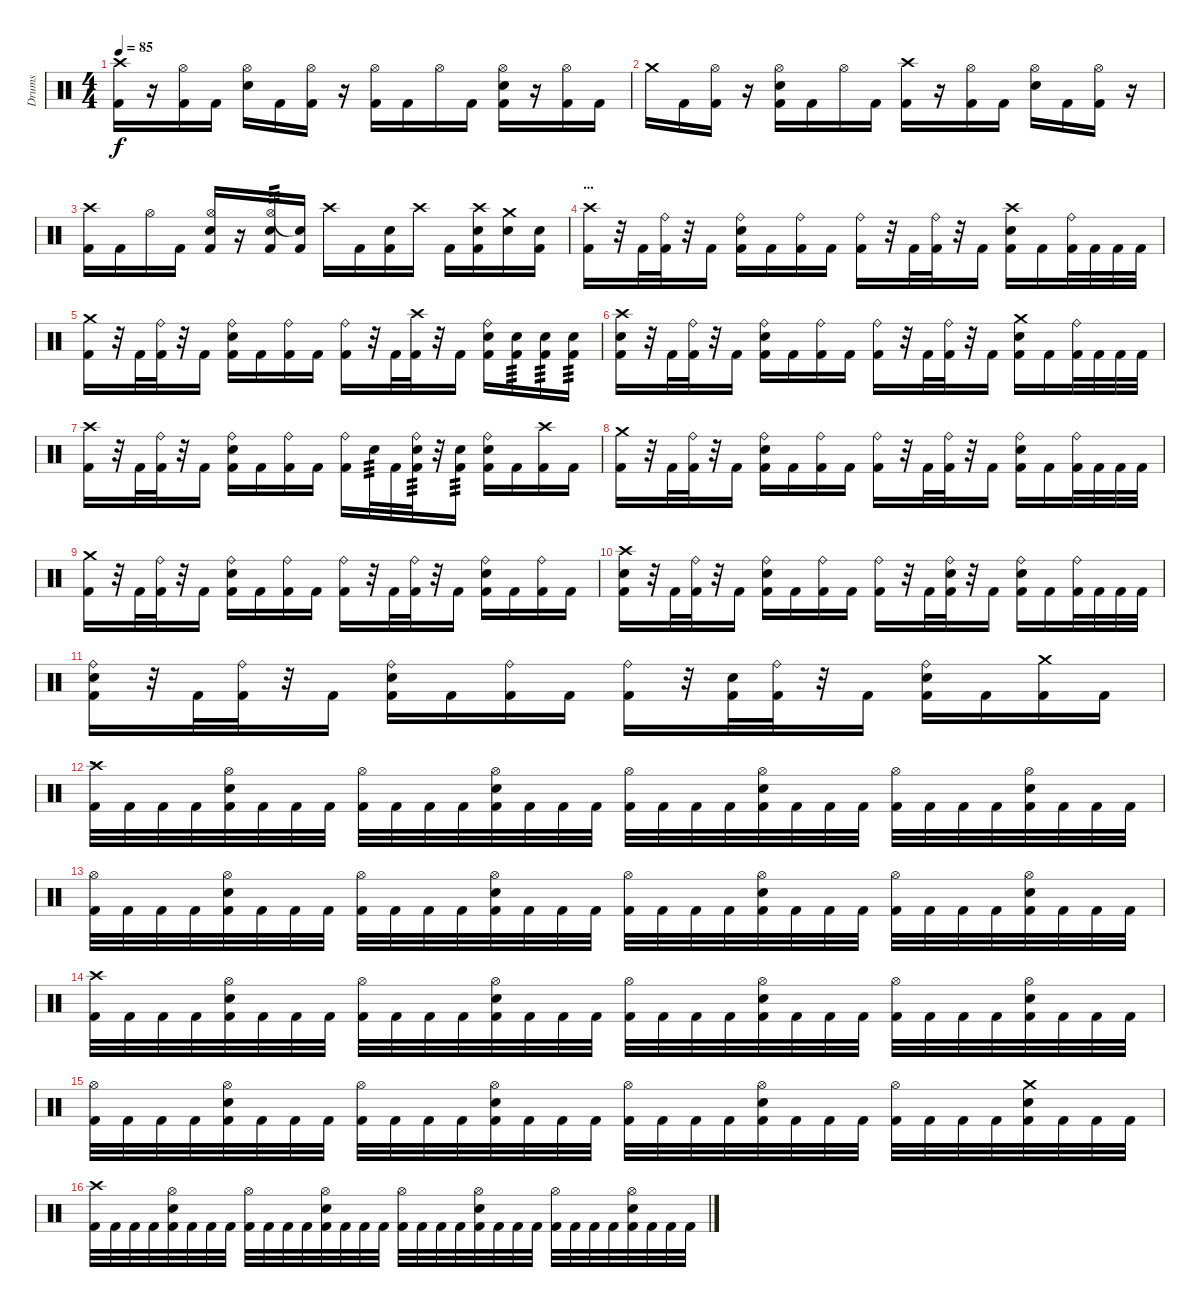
\track ("Drums" "Drums") {instrument percussion}
\staff {score}
\articulation defaults
\ts (4 4)
\tempo 85
\clef neutral
\ks c
("Crash high (hit)" "Kick (hit) 2").16{dy f} r.16 ("Hi-Hat (open)" "Kick (hit) 2").16 "Kick (hit) 2".16 ("Hi-Hat (open)" "Snare (hit) 2").16 "Kick (hit) 2".16 ("Hi-Hat (open)" "Kick (hit) 2").16 r.16 ("Hi-Hat (open)" "Kick (hit) 2").16 "Kick (hit) 2".16 "Hi-Hat (open)".16 "Kick (hit) 2".16 ("Hi-Hat (open)" "Snare (hit) 2" "Kick (hit) 2").16 r.16 ("Hi-Hat (open)" "Kick (hit) 2").16 "Kick (hit) 2".16 |
"Crash medium (hit)".16 "Kick (hit) 2".16 ("Hi-Hat (open)" "Kick (hit) 2").16 r.16 ("Hi-Hat (open)" "Snare (hit) 2" "Kick (hit) 2").16 "Kick (hit) 2".16 "Hi-Hat (open)".16 "Kick (hit) 2".16 ("Crash high (hit)" "Kick (hit) 2").16 r.16 ("Hi-Hat (open)" "Kick (hit) 2").16 "Kick (hit) 2".16 ("Hi-Hat (open)" "Snare (hit) 2").16 "Kick (hit) 2".16 ("Hi-Hat (open)" "Kick (hit) 2").16 r.16 |
("Crash high (hit)" "Kick (hit) 2").16 "Kick (hit) 2".16 "Hi-Hat (open)".16 "Kick (hit) 2".16 ("Hi-Hat (open)" "Snare (hit) 2" "Kick (hit) 2").16 r.16 ("Hi-Hat (open)" "Snare (hit) 2" "Kick (hit) 2").16{tp 3} ("Snare (hit)"{t} "Kick (hit) 2").16 "Crash high (hit)".16 "Kick (hit) 2".16 ("Snare (hit) 2" "Kick (hit) 2").16 "Crash high (hit)".16 "Kick (hit) 2".16 ("Crash high (hit)" "Snare (hit) 2" "Kick (hit) 2").16 ("Crash medium (hit)" "Snare (hit) 2").16 ("Snare (hit) 2" "Kick (hit) 2").16 |
\section ("" "...")
("Crash high (hit)" "Kick (hit) 2").16 r.32 "Kick (hit) 2".32 ("Ride (bell)" "Kick (hit) 2").32 r.32 "Kick (hit) 2".16 ("Ride (bell)" "Snare (hit) 2" "Kick (hit) 2").16 "Kick (hit) 2".16 ("Ride (bell)" "Kick (hit) 2").16 "Kick (hit) 2".16 ("Ride (bell)" "Kick (hit) 2").16 r.32 "Kick (hit) 2".32 ("Ride (bell)" "Kick (hit) 2").32 r.32 "Kick (hit) 2".16 ("Crash high (hit)" "Snare (hit) 2" "Kick (hit) 2").16 "Kick (hit) 2".16 ("Ride (bell)" "Kick (hit) 2").32 "Kick (hit) 2".32 "Kick (hit) 2".32 "Kick (hit) 2".32 |
("Crash medium (hit)" "Kick (hit) 2").16 r.32 "Kick (hit) 2".32 ("Ride (bell)" "Kick (hit) 2").32 r.32 "Kick (hit) 2".16 ("Ride (bell)" "Snare (hit) 2" "Kick (hit) 2").16 "Kick (hit) 2".16 ("Ride (bell)" "Kick (hit) 2").16 "Kick (hit) 2".16 ("Ride (bell)" "Kick (hit) 2").16 r.32 "Kick (hit) 2".32 ("Crash high (hit)" "Kick (hit) 2").32 r.32 "Kick (hit) 2".16 ("Ride (bell)" "Snare (hit) 2" "Kick (hit) 2").16 ("Snare (hit) 2" "Kick (hit) 2").16{tp 3} ("Snare (hit) 2" "Kick (hit) 2").16{tp 3} ("Snare (hit) 2" "Kick (hit) 2").16{tp 3} |
("Crash high (hit)" "Snare (hit) 2" "Kick (hit) 2").16 r.32 "Kick (hit) 2".32 ("Ride (bell)" "Kick (hit) 2").32 r.32 "Kick (hit) 2".16 ("Ride (bell)" "Snare (hit) 2" "Kick (hit) 2").16 "Kick (hit) 2".16 ("Ride (bell)" "Kick (hit) 2").16 "Kick (hit) 2".16 ("Ride (bell)" "Kick (hit) 2").16 r.32 "Kick (hit) 2".32 ("Ride (bell)" "Kick (hit) 2").32 r.32 "Kick (hit) 2".16 ("Crash medium (hit)" "Snare (hit) 2" "Kick (hit) 2").16 "Kick (hit) 2".16 ("Ride (bell)" "Kick (hit) 2").32 "Kick (hit) 2".32 "Kick (hit) 2".32 "Kick (hit) 2".32 |
("Crash high (hit)" "Kick (hit) 2").16 r.32 "Kick (hit) 2".32 ("Ride (bell)" "Kick (hit) 2").32 r.32 "Kick (hit) 2".16 ("Ride (bell)" "Snare (hit) 2" "Kick (hit) 2").16 "Kick (hit) 2".16 ("Ride (bell)" "Kick (hit) 2").16 "Kick (hit) 2".16 ("Ride (bell)" "Kick (hit) 2").16 "Snare (hit) 2".32{tp 3} "Kick (hit) 2".32 ("Ride (bell)" "Snare (hit) 2" "Kick (hit) 2").32{tp 3} r.32 ("Snare (hit) 2" "Kick (hit) 2").16{tp 3} ("Ride (bell)" "Snare (hit) 2" "Kick (hit) 2").16 "Kick (hit) 2".16 ("Crash high (hit)" "Kick (hit) 2").16 "Kick (hit) 2".16 |
("Crash medium (hit)" "Kick (hit) 2").16 r.32 "Kick (hit) 2".32 ("Ride (bell)" "Kick (hit) 2").32 r.32 "Kick (hit) 2".16 ("Ride (bell)" "Snare (hit) 2" "Kick (hit) 2").16 "Kick (hit) 2".16 ("Ride (bell)" "Kick (hit) 2").16 "Kick (hit) 2".16 ("Ride (bell)" "Kick (hit) 2").16 r.32 "Kick (hit) 2".32 ("Ride (bell)" "Kick (hit) 2").32 r.32 "Kick (hit) 2".16 ("Ride (bell)" "Snare (hit) 2" "Kick (hit) 2").16 "Kick (hit) 2".16 ("Ride (bell)" "Kick (hit) 2").32 "Kick (hit) 2".32 "Kick (hit) 2".32 "Kick (hit) 2".32 |
("Crash medium (hit)" "Kick (hit) 2").16 r.32 "Kick (hit) 2".32 ("Ride (bell)" "Kick (hit) 2").32 r.32 "Kick (hit) 2".16 ("Ride (bell)" "Snare (hit) 2" "Kick (hit) 2").16 "Kick (hit) 2".16 ("Ride (bell)" "Kick (hit) 2").16 "Kick (hit) 2".16 ("Ride (bell)" "Kick (hit) 2").16 r.32 "Kick (hit) 2".32 ("Ride (bell)" "Kick (hit) 2").32 r.32 "Kick (hit) 2".16 ("Ride (bell)" "Snare (hit) 2" "Kick (hit) 2").16 "Kick (hit) 2".16 ("Ride (bell)" "Kick (hit) 2").16 "Kick (hit) 2".16 |
("Crash high (hit)" "Snare (hit) 2" "Kick (hit) 2").16 r.32 "Kick (hit) 2".32 ("Ride (bell)" "Kick (hit) 2").32 r.32 "Kick (hit) 2".16 ("Ride (bell)" "Snare (hit) 2" "Kick (hit) 2").16 "Kick (hit) 2".16 ("Ride (bell)" "Kick (hit) 2").16 "Kick (hit) 2".16 ("Ride (bell)" "Kick (hit) 2").16 r.32 "Kick (hit) 2".32 ("Ride (bell)" "Snare (hit) 2" "Kick (hit) 2").32 r.32 "Kick (hit) 2".16 ("Ride (bell)" "Snare (hit) 2" "Kick (hit) 2").16 "Kick (hit) 2".16 ("Ride (bell)" "Kick (hit) 2").32 "Kick (hit) 2".32 "Kick (hit) 2".32 "Kick (hit) 2".32 |
("Ride (bell)" "Snare (hit) 2" "Kick (hit) 2").16 r.32 "Kick (hit) 2".32 ("Ride (bell)" "Kick (hit) 2").32 r.32 "Kick (hit) 2".16 ("Ride (bell)" "Snare (hit) 2" "Kick (hit) 2").16 "Kick (hit) 2".16 ("Ride (bell)" "Kick (hit) 2").16 "Kick (hit) 2".16 ("Ride (bell)" "Kick (hit) 2").16 r.32 ("Snare (hit) 2" "Kick (hit) 2").32 ("Ride (bell)" "Kick (hit) 2").32 r.32 "Kick (hit) 2".16 ("Ride (bell)" "Snare (hit) 2" "Kick (hit) 2").16 "Kick (hit) 2".16 ("Crash medium (hit)" "Kick (hit) 2").16 "Kick (hit) 2".16 |
\section ("" "..")
("Crash high (hit)" "Kick (hit) 2").32 "Kick (hit) 2".32 "Kick (hit) 2".32 "Kick (hit) 2".32 ("Hi-Hat (open)" "Snare (hit) 2" "Kick (hit) 2").32 "Kick (hit) 2".32 "Kick (hit) 2".32 "Kick (hit) 2".32 ("Hi-Hat (open)" "Kick (hit) 2").32 "Kick (hit) 2".32 "Kick (hit) 2".32 "Kick (hit) 2".32 ("Hi-Hat (open)" "Snare (hit) 2" "Kick (hit) 2").32 "Kick (hit) 2".32 "Kick (hit) 2".32 "Kick (hit) 2".32 ("Hi-Hat (open)" "Kick (hit) 2").32 "Kick (hit) 2".32 "Kick (hit) 2".32 "Kick (hit) 2".32 ("Hi-Hat (open)" "Snare (hit) 2" "Kick (hit) 2").32 "Kick (hit) 2".32 "Kick (hit) 2".32 "Kick (hit) 2".32 ("Hi-Hat (open)" "Kick (hit) 2").32 "Kick (hit) 2".32 "Kick (hit) 2".32 "Kick (hit) 2".32 ("Hi-Hat (open)" "Snare (hit) 2" "Kick (hit) 2").32 "Kick (hit) 2".32 "Kick (hit) 2".32 "Kick (hit) 2".32 |
("Hi-Hat (open)" "Kick (hit) 2").32 "Kick (hit) 2".32 "Kick (hit) 2".32 "Kick (hit) 2".32 ("Hi-Hat (open)" "Snare (hit) 2" "Kick (hit) 2").32 "Kick (hit) 2".32 "Kick (hit) 2".32 "Kick (hit) 2".32 ("Hi-Hat (open)" "Kick (hit) 2").32 "Kick (hit) 2".32 "Kick (hit) 2".32 "Kick (hit) 2".32 ("Hi-Hat (open)" "Snare (hit) 2" "Kick (hit) 2").32 "Kick (hit) 2".32 "Kick (hit) 2".32 "Kick (hit) 2".32 ("Hi-Hat (open)" "Kick (hit) 2").32 "Kick (hit) 2".32 "Kick (hit) 2".32 "Kick (hit) 2".32 ("Hi-Hat (open)" "Snare (hit) 2" "Kick (hit) 2").32 "Kick (hit) 2".32 "Kick (hit) 2".32 "Kick (hit) 2".32 ("Hi-Hat (open)" "Kick (hit) 2").32 "Kick (hit) 2".32 "Kick (hit) 2".32 "Kick (hit) 2".32 ("Hi-Hat (open)" "Snare (hit) 2" "Kick (hit) 2").32 "Kick (hit) 2".32 "Kick (hit) 2".32 "Kick (hit) 2".32 |
("Crash high (hit)" "Kick (hit) 2").32 "Kick (hit) 2".32 "Kick (hit) 2".32 "Kick (hit) 2".32 ("Hi-Hat (open)" "Snare (hit) 2" "Kick (hit) 2").32 "Kick (hit) 2".32 "Kick (hit) 2".32 "Kick (hit) 2".32 ("Hi-Hat (open)" "Kick (hit) 2").32 "Kick (hit) 2".32 "Kick (hit) 2".32 "Kick (hit) 2".32 ("Hi-Hat (open)" "Snare (hit) 2" "Kick (hit) 2").32 "Kick (hit) 2".32 "Kick (hit) 2".32 "Kick (hit) 2".32 ("Hi-Hat (open)" "Kick (hit) 2").32 "Kick (hit) 2".32 "Kick (hit) 2".32 "Kick (hit) 2".32 ("Hi-Hat (open)" "Snare (hit) 2" "Kick (hit) 2").32 "Kick (hit) 2".32 "Kick (hit) 2".32 "Kick (hit) 2".32 ("Hi-Hat (open)" "Kick (hit) 2").32 "Kick (hit) 2".32 "Kick (hit) 2".32 "Kick (hit) 2".32 ("Hi-Hat (open)" "Snare (hit) 2" "Kick (hit) 2").32 "Kick (hit) 2".32 "Kick (hit) 2".32 "Kick (hit) 2".32 |
("Hi-Hat (open)" "Kick (hit) 2").32 "Kick (hit) 2".32 "Kick (hit) 2".32 "Kick (hit) 2".32 ("Hi-Hat (open)" "Snare (hit) 2" "Kick (hit) 2").32 "Kick (hit) 2".32 "Kick (hit) 2".32 "Kick (hit) 2".32 ("Hi-Hat (open)" "Kick (hit) 2").32 "Kick (hit) 2".32 "Kick (hit) 2".32 "Kick (hit) 2".32 ("Hi-Hat (open)" "Snare (hit) 2" "Kick (hit) 2").32 "Kick (hit) 2".32 "Kick (hit) 2".32 "Kick (hit) 2".32 ("Hi-Hat (open)" "Kick (hit) 2").32 "Kick (hit) 2".32 "Kick (hit) 2".32 "Kick (hit) 2".32 ("Hi-Hat (open)" "Snare (hit) 2" "Kick (hit) 2").32 "Kick (hit) 2".32 "Kick (hit) 2".32 "Kick (hit) 2".32 ("Hi-Hat (open)" "Kick (hit) 2").32 "Kick (hit) 2".32 "Kick (hit) 2".32 "Kick (hit) 2".32 ("Crash medium (hit)" "Snare (hit) 2" "Kick (hit) 2").32 "Kick (hit) 2".32 "Kick (hit) 2".32 "Kick (hit) 2".32 |
("Crash high (hit)" "Kick (hit) 2").32 "Kick (hit) 2".32 "Kick (hit) 2".32 "Kick (hit) 2".32 ("Hi-Hat (open)" "Snare (hit) 2" "Kick (hit) 2").32 "Kick (hit) 2".32 "Kick (hit) 2".32 "Kick (hit) 2".32 ("Hi-Hat (open)" "Kick (hit) 2").32 "Kick (hit) 2".32 "Kick (hit) 2".32 "Kick (hit) 2".32 ("Hi-Hat (open)" "Snare (hit) 2" "Kick (hit) 2").32 "Kick (hit) 2".32 "Kick (hit) 2".32 "Kick (hit) 2".32 ("Hi-Hat (open)" "Kick (hit) 2").32 "Kick (hit) 2".32 "Kick (hit) 2".32 "Kick (hit) 2".32 ("Hi-Hat (open)" "Snare (hit) 2" "Kick (hit) 2").32 "Kick (hit) 2".32 "Kick (hit) 2".32 "Kick (hit) 2".32 ("Hi-Hat (open)" "Kick (hit) 2").32 "Kick (hit) 2".32 "Kick (hit) 2".32 "Kick (hit) 2".32 ("Hi-Hat (open)" "Snare (hit) 2" "Kick (hit) 2").32 "Kick (hit) 2".32 "Kick (hit) 2".32 "Kick (hit) 2".32
